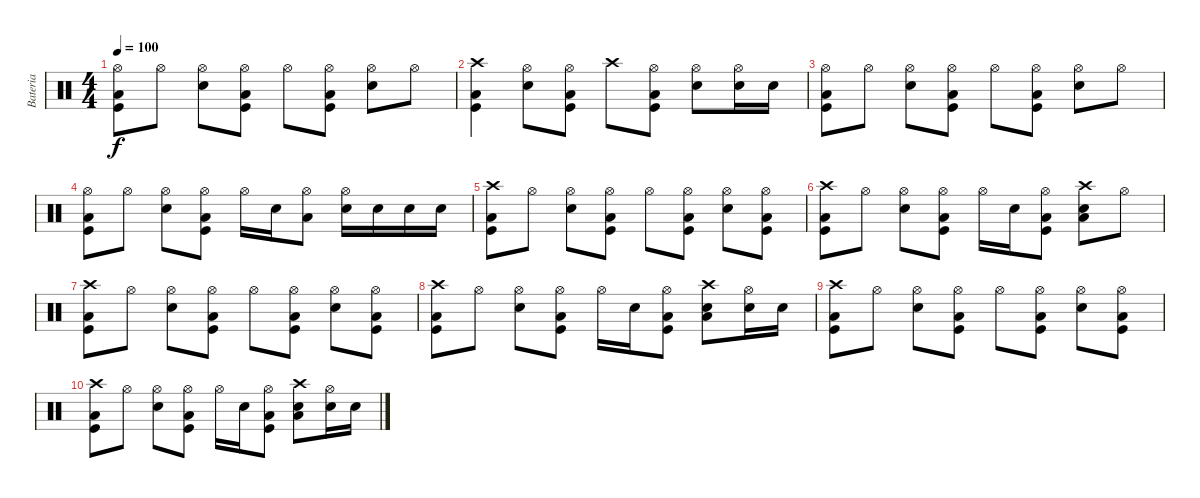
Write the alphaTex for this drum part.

\track ("Bateria" "Bateria") {instrument percussion}
\staff {score}
\articulation defaults
\ts (4 4)
\tempo 100
\clef neutral
\ks c
("Hi-Hat (open)" "Kick (hit)" "Low Tom (hit)").8{dy f} "Hi-Hat (open)".8 ("Hi-Hat (open)" "Snare (hit) 2").8 ("Hi-Hat (open)" "Kick (hit)" "Low Tom (hit)").8 "Hi-Hat (open)".8 ("Hi-Hat (open)" "Kick (hit)" "Low Tom (hit)").8 ("Hi-Hat (open)" "Snare (hit) 2").8 "Hi-Hat (open)".8 |
("Crash high (hit)" "Kick (hit)" "Low Tom (hit)").4 ("Hi-Hat (open)" "Snare (hit) 2").8 ("Hi-Hat (open)" "Kick (hit)" "Low Tom (hit)").8 "Crash high (hit)".8 ("Hi-Hat (open)" "Kick (hit)" "Low Tom (hit)").8 ("Hi-Hat (open)" "Snare (hit) 2").8 ("Hi-Hat (open)" "Snare (hit) 2").16 "Snare (hit) 2".16 |
("Hi-Hat (open)" "Kick (hit)" "Low Tom (hit)").8 "Hi-Hat (open)".8 ("Hi-Hat (open)" "Snare (hit) 2").8 ("Hi-Hat (open)" "Kick (hit)" "Low Tom (hit)").8 "Hi-Hat (open)".8 ("Hi-Hat (open)" "Kick (hit)" "Low Tom (hit)").8 ("Hi-Hat (open)" "Snare (hit) 2").8 "Hi-Hat (open)".8 |
("Hi-Hat (open)" "Kick (hit)" "Low Tom (hit)").8 "Hi-Hat (open)".8 ("Hi-Hat (open)" "Snare (hit) 2").8 ("Hi-Hat (open)" "Kick (hit)" "Low Tom (hit)").8 "Hi-Hat (open)".16 "Snare (hit) 2".16 ("Hi-Hat (open)" "Low Tom (hit)").8 ("Hi-Hat (open)" "Snare (hit) 2").16 "Snare (hit) 2".16 "Snare (hit) 2".16 "Snare (hit) 2".16 |
("Crash high (hit)" "Kick (hit)" "Low Tom (hit)").8 "Hi-Hat (open)".8 ("Hi-Hat (open)" "Snare (hit) 2").8 ("Hi-Hat (open)" "Kick (hit)" "Low Tom (hit)").8 "Hi-Hat (open)".8 ("Hi-Hat (open)" "Kick (hit)" "Low Tom (hit)").8 ("Hi-Hat (open)" "Snare (hit) 2").8 ("Hi-Hat (open)" "Kick (hit)" "Low Tom (hit)").8 |
("Crash high (hit)" "Kick (hit)" "Low Tom (hit)").8 "Hi-Hat (open)".8 ("Hi-Hat (open)" "Snare (hit) 2").8 ("Hi-Hat (open)" "Kick (hit)" "Low Tom (hit)").8 "Hi-Hat (open)".16 "Snare (hit) 2".16 ("Hi-Hat (open)" "Kick (hit)" "Low Tom (hit)").8 ("Crash high (hit)" "Snare (hit) 2" "Low Tom (hit)").8 "Hi-Hat (open)".8 |
("Crash high (hit)" "Kick (hit)" "Low Tom (hit)").8 "Hi-Hat (open)".8 ("Hi-Hat (open)" "Snare (hit) 2").8 ("Hi-Hat (open)" "Kick (hit)" "Low Tom (hit)").8 "Hi-Hat (open)".8 ("Hi-Hat (open)" "Kick (hit)" "Low Tom (hit)").8 ("Hi-Hat (open)" "Snare (hit) 2").8 ("Hi-Hat (open)" "Kick (hit)" "Low Tom (hit)").8 |
("Crash high (hit)" "Kick (hit)" "Low Tom (hit)").8 "Hi-Hat (open)".8 ("Hi-Hat (open)" "Snare (hit) 2").8 ("Hi-Hat (open)" "Kick (hit)" "Low Tom (hit)").8 "Hi-Hat (open)".16 "Snare (hit) 2".16 ("Hi-Hat (open)" "Kick (hit)" "Low Tom (hit)").8 ("Crash high (hit)" "Snare (hit) 2" "Low Tom (hit)").8 ("Hi-Hat (open)" "Snare (hit) 2").16 "Snare (hit) 2".16 |
("Crash high (hit)" "Kick (hit)" "Low Tom (hit)").8 "Hi-Hat (open)".8 ("Hi-Hat (open)" "Snare (hit) 2").8 ("Hi-Hat (open)" "Kick (hit)" "Low Tom (hit)").8 "Hi-Hat (open)".8 ("Hi-Hat (open)" "Kick (hit)" "Low Tom (hit)").8 ("Hi-Hat (open)" "Snare (hit) 2").8 ("Hi-Hat (open)" "Kick (hit)" "Low Tom (hit)").8 |
("Crash high (hit)" "Kick (hit)" "Low Tom (hit)").8 "Hi-Hat (open)".8 ("Hi-Hat (open)" "Snare (hit) 2").8 ("Hi-Hat (open)" "Kick (hit)" "Low Tom (hit)").8 "Hi-Hat (open)".16 "Snare (hit) 2".16 ("Hi-Hat (open)" "Kick (hit)" "Low Tom (hit)").8 ("Crash high (hit)" "Snare (hit) 2" "Low Tom (hit)").8 ("Hi-Hat (open)" "Snare (hit) 2").16 "Snare (hit) 2".16
